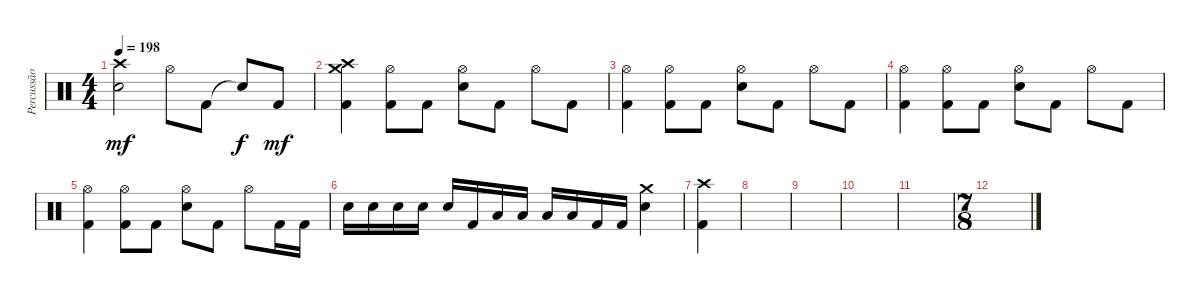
\track ("Percussão" "Percussão") {instrument percussion}
\staff {score}
\articulation defaults
\ts (4 4)
\tempo 198
\clef neutral
\ks c
("Crash high (hit)" "Snare (hit) 2").2{dy mf} "Hi-Hat (open)".8 "Kick (hit) 2".8 "Snare (hit)"{t}.8{dy f} "Kick (hit) 2".8{dy mf} |
("Crash high (hit)" "Crash medium (hit)" "Kick (hit) 2").4 ("Hi-Hat (open)" "Kick (hit) 2").8 "Kick (hit) 2".8 ("Hi-Hat (open)" "Snare (hit) 2").8 "Kick (hit) 2".8 "Hi-Hat (open)".8 "Kick (hit) 2".8 |
("Hi-Hat (open)" "Kick (hit) 2").4 ("Hi-Hat (open)" "Kick (hit) 2").8 "Kick (hit) 2".8 ("Hi-Hat (open)" "Snare (hit) 2").8 "Kick (hit) 2".8 "Hi-Hat (open)".8 "Kick (hit) 2".8 |
("Hi-Hat (open)" "Kick (hit) 2").4 ("Hi-Hat (open)" "Kick (hit) 2").8 "Kick (hit) 2".8 ("Hi-Hat (open)" "Snare (hit) 2").8 "Kick (hit) 2".8 "Hi-Hat (open)".8 "Kick (hit) 2".8 |
("Hi-Hat (open)" "Kick (hit) 2").4 ("Hi-Hat (open)" "Kick (hit) 2").8 "Kick (hit) 2".8 ("Hi-Hat (open)" "Snare (hit) 2").8 "Kick (hit) 2".8 "Hi-Hat (open)".8 "Kick (hit) 2".16 "Kick (hit) 2".16 |
"Snare (hit) 2".16 "Snare (hit) 2".16 "Snare (hit) 2".16 "Snare (hit) 2".16 "Snare (hit) 2".16 "Kick (hit) 2".16 "Low Tom (hit)".16 "Low Tom (hit)".16 "Low Tom (hit)".16 "Low Tom (hit)".16 "Kick (hit) 2".16 "Kick (hit) 2".16 ("Crash medium (hit)" "Snare (hit) 2").4 |
("Crash high (hit)" "Kick (hit) 2").4 |
|
|
|
|
\ts (7 8)
